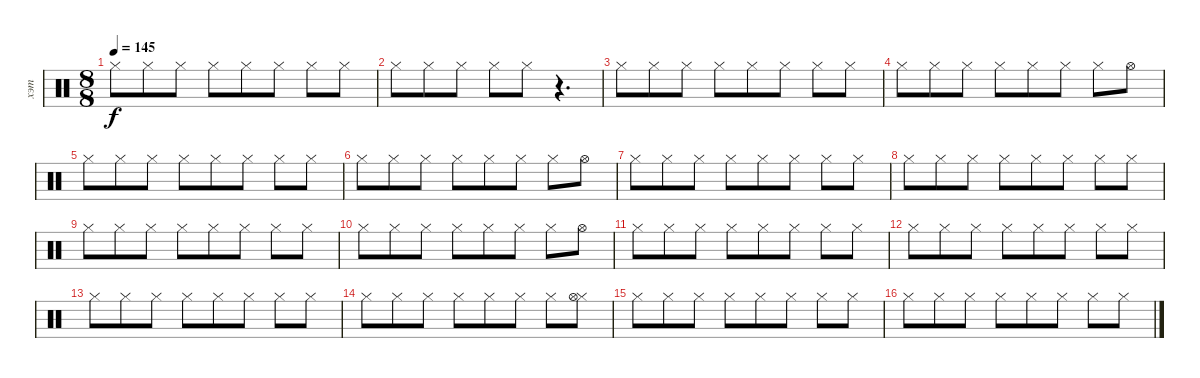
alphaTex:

\track ("хэт" "хэт") {instrument percussion}
\staff {score}
\articulation defaults
\ts (8 8)
\tempo 145
\clef neutral
\ks c "Hi-Hat (closed)".8{dy f} "Hi-Hat (closed)".8 "Hi-Hat (closed)".8 "Hi-Hat (closed)".8 "Hi-Hat (closed)".8 "Hi-Hat (closed)".8 "Hi-Hat (closed)".8 "Hi-Hat (closed)".8
|
"Hi-Hat (closed)".8 "Hi-Hat (closed)".8 "Hi-Hat (closed)".8 "Hi-Hat (closed)".8 "Hi-Hat (closed)".8 r.4{d} |
"Hi-Hat (closed)".8 "Hi-Hat (closed)".8 "Hi-Hat (closed)".8 "Hi-Hat (closed)".8 "Hi-Hat (closed)".8 "Hi-Hat (closed)".8 "Hi-Hat (closed)".8 "Hi-Hat (closed)".8 |
"Hi-Hat (closed)".8 "Hi-Hat (closed)".8 "Hi-Hat (closed)".8 "Hi-Hat (closed)".8 "Hi-Hat (closed)".8 "Hi-Hat (closed)".8 "Hi-Hat (closed)".8 "Hi-Hat (open)".8 |
"Hi-Hat (closed)".8 "Hi-Hat (closed)".8 "Hi-Hat (closed)".8 "Hi-Hat (closed)".8 "Hi-Hat (closed)".8 "Hi-Hat (closed)".8 "Hi-Hat (closed)".8 "Hi-Hat (closed)".8 |
"Hi-Hat (closed)".8 "Hi-Hat (closed)".8 "Hi-Hat (closed)".8 "Hi-Hat (closed)".8 "Hi-Hat (closed)".8 "Hi-Hat (closed)".8 "Hi-Hat (closed)".8 "Hi-Hat (open)".8 |
"Hi-Hat (closed)".8 "Hi-Hat (closed)".8 "Hi-Hat (closed)".8 "Hi-Hat (closed)".8 "Hi-Hat (closed)".8 "Hi-Hat (closed)".8 "Hi-Hat (closed)".8 "Hi-Hat (closed)".8 |
"Hi-Hat (closed)".8 "Hi-Hat (closed)".8 "Hi-Hat (closed)".8 "Hi-Hat (closed)".8 "Hi-Hat (closed)".8 "Hi-Hat (closed)".8 "Hi-Hat (closed)".8 "Hi-Hat (closed)".8 |
"Hi-Hat (closed)".8 "Hi-Hat (closed)".8 "Hi-Hat (closed)".8 "Hi-Hat (closed)".8 "Hi-Hat (closed)".8 "Hi-Hat (closed)".8 "Hi-Hat (closed)".8 "Hi-Hat (closed)".8 |
"Hi-Hat (closed)".8 "Hi-Hat (closed)".8 "Hi-Hat (closed)".8 "Hi-Hat (closed)".8 "Hi-Hat (closed)".8 "Hi-Hat (closed)".8 "Hi-Hat (closed)".8 "Hi-Hat (open)".8 |
"Hi-Hat (closed)".8 "Hi-Hat (closed)".8 "Hi-Hat (closed)".8 "Hi-Hat (closed)".8 "Hi-Hat (closed)".8 "Hi-Hat (closed)".8 "Hi-Hat (closed)".8 "Hi-Hat (closed)".8 |
"Hi-Hat (closed)".8 "Hi-Hat (closed)".8 "Hi-Hat (closed)".8 "Hi-Hat (closed)".8 "Hi-Hat (closed)".8 "Hi-Hat (closed)".8 "Hi-Hat (closed)".8 "Hi-Hat (closed)".8 |
"Hi-Hat (closed)".8 "Hi-Hat (closed)".8 "Hi-Hat (closed)".8 "Hi-Hat (closed)".8 "Hi-Hat (closed)".8 "Hi-Hat (closed)".8 "Hi-Hat (closed)".8 "Hi-Hat (closed)".8 |
"Hi-Hat (closed)".8 "Hi-Hat (closed)".8 "Hi-Hat (closed)".8 "Hi-Hat (closed)".8 "Hi-Hat (closed)".8 "Hi-Hat (closed)".8 "Hi-Hat (closed)".8 ("Hi-Hat (closed)" "Hi-Hat (open)").8 |
"Hi-Hat (closed)".8 "Hi-Hat (closed)".8 "Hi-Hat (closed)".8 "Hi-Hat (closed)".8 "Hi-Hat (closed)".8 "Hi-Hat (closed)".8 "Hi-Hat (closed)".8 "Hi-Hat (closed)".8 |
"Hi-Hat (closed)".8 "Hi-Hat (closed)".8 "Hi-Hat (closed)".8 "Hi-Hat (closed)".8 "Hi-Hat (closed)".8 "Hi-Hat (closed)".8 "Hi-Hat (closed)".8 "Hi-Hat (closed)".8
